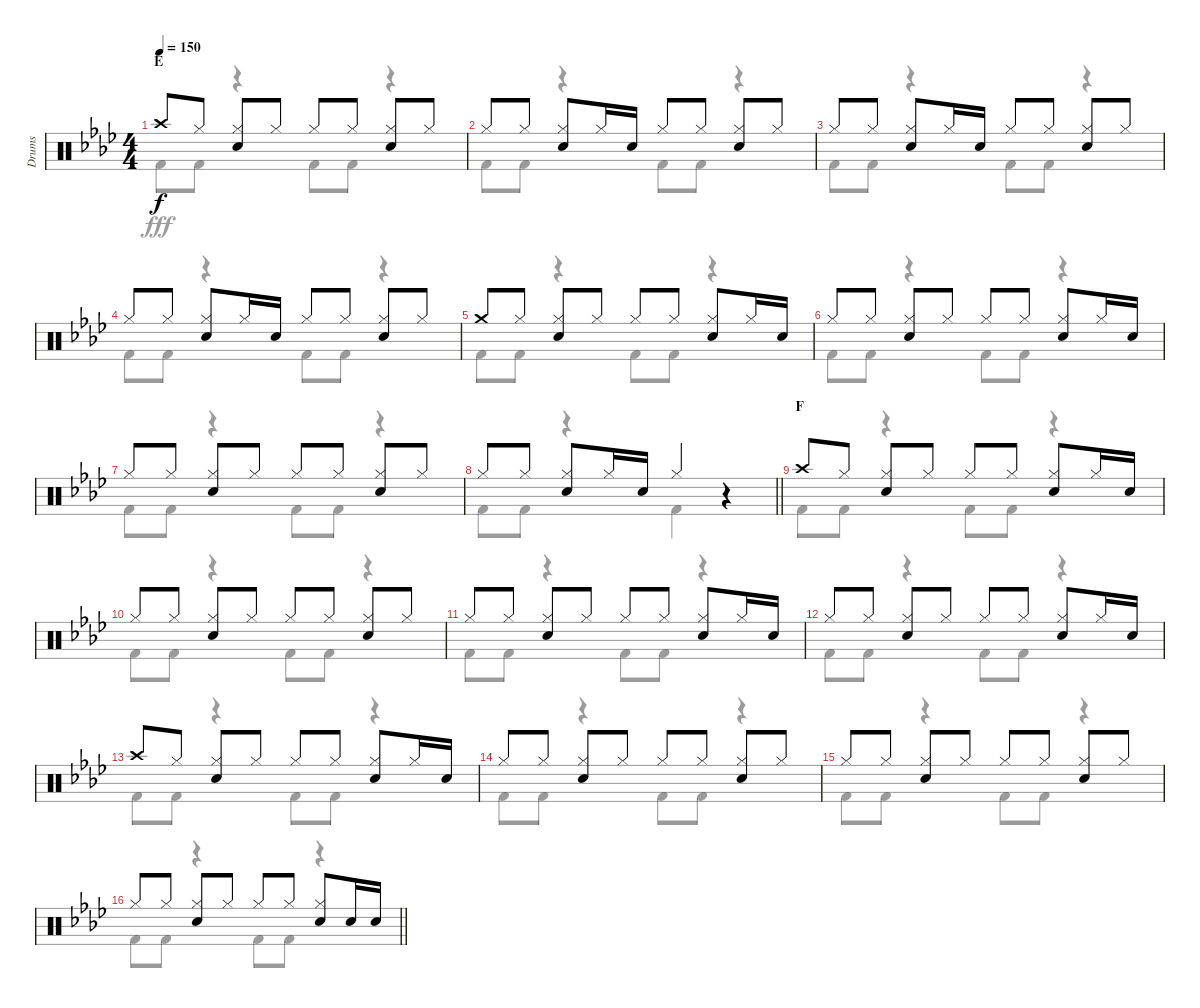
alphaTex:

\track ("Drums" "Drums") {instrument percussion}
\staff {score}
\articulation defaults
\voice
\ts (4 4)
\section ("" "E")
\tempo 150
\clef neutral
\ks ab "Crash high (hit)".8{dy f} "Hi-Hat (closed)".8
("Hi-Hat (closed)" "Snare (hit) 2").8 "Hi-Hat (closed)".8 "Hi-Hat (closed)".8 "Hi-Hat (closed)".8 ("Hi-Hat (closed)" "Snare (hit) 2").8 "Hi-Hat (closed)".8 |
"Hi-Hat (closed)".8 "Hi-Hat (closed)".8 ("Hi-Hat (closed)" "Snare (hit) 2").8 "Hi-Hat (closed)".16 "Snare (hit) 2".16 "Hi-Hat (closed)".8 "Hi-Hat (closed)".8 ("Hi-Hat (closed)" "Snare (hit) 2").8 "Hi-Hat (closed)".8 |
"Hi-Hat (closed)".8 "Hi-Hat (closed)".8 ("Hi-Hat (closed)" "Snare (hit) 2").8 "Hi-Hat (closed)".16 "Snare (hit) 2".16 "Hi-Hat (closed)".8 "Hi-Hat (closed)".8 ("Hi-Hat (closed)" "Snare (hit) 2").8 "Hi-Hat (closed)".8 |
"Hi-Hat (closed)".8 "Hi-Hat (closed)".8 ("Hi-Hat (closed)" "Snare (hit) 2").8 "Hi-Hat (closed)".16 "Snare (hit) 2".16 "Hi-Hat (closed)".8 "Hi-Hat (closed)".8 ("Hi-Hat (closed)" "Snare (hit) 2").8 "Hi-Hat (closed)".8 |
"Crash medium (hit)".8 "Hi-Hat (closed)".8 ("Hi-Hat (closed)" "Snare (hit) 2").8 "Hi-Hat (closed)".8 "Hi-Hat (closed)".8 "Hi-Hat (closed)".8 ("Hi-Hat (closed)" "Snare (hit) 2").8 "Hi-Hat (closed)".16 "Snare (hit) 2".16 |
"Hi-Hat (closed)".8 "Hi-Hat (closed)".8 ("Hi-Hat (closed)" "Snare (hit) 2").8 "Hi-Hat (closed)".8 "Hi-Hat (closed)".8 "Hi-Hat (closed)".8 ("Hi-Hat (closed)" "Snare (hit) 2").8 "Hi-Hat (closed)".16 "Snare (hit) 2".16 |
"Hi-Hat (closed)".8 "Hi-Hat (closed)".8 ("Hi-Hat (closed)" "Snare (hit) 2").8 "Hi-Hat (closed)".8 "Hi-Hat (closed)".8 "Hi-Hat (closed)".8 ("Hi-Hat (closed)" "Snare (hit) 2").8 "Hi-Hat (closed)".8 |
\barLineRight lightlight "Hi-Hat (closed)".8 "Hi-Hat (closed)".8
("Hi-Hat (closed)" "Snare (hit) 2").8 "Hi-Hat (closed)".16 "Snare (hit) 2".16 "Hi-Hat (closed)".4 r.4 |
\section ("" "F")
"Crash high (hit)".8 "Hi-Hat (closed)".8 ("Hi-Hat (closed)" "Snare (hit) 2").8 "Hi-Hat (closed)".8 "Hi-Hat (closed)".8 "Hi-Hat (closed)".8 ("Hi-Hat (closed)" "Snare (hit) 2").8 "Hi-Hat (closed)".16 "Snare (hit) 2".16 |
"Hi-Hat (closed)".8 "Hi-Hat (closed)".8 ("Hi-Hat (closed)" "Snare (hit) 2").8 "Hi-Hat (closed)".8 "Hi-Hat (closed)".8 "Hi-Hat (closed)".8 ("Hi-Hat (closed)" "Snare (hit) 2").8 "Hi-Hat (closed)".8 |
"Hi-Hat (closed)".8 "Hi-Hat (closed)".8 ("Hi-Hat (closed)" "Snare (hit) 2").8 "Hi-Hat (closed)".8 "Hi-Hat (closed)".8 "Hi-Hat (closed)".8 ("Hi-Hat (closed)" "Snare (hit) 2").8 "Hi-Hat (closed)".16 "Snare (hit) 2".16 |
"Hi-Hat (closed)".8 "Hi-Hat (closed)".8 ("Hi-Hat (closed)" "Snare (hit) 2").8 "Hi-Hat (closed)".8 "Hi-Hat (closed)".8 "Hi-Hat (closed)".8 ("Hi-Hat (closed)" "Snare (hit) 2").8 "Hi-Hat (closed)".16 "Snare (hit) 2".16 |
"Crash high (hit)".8 "Hi-Hat (closed)".8 ("Hi-Hat (closed)" "Snare (hit) 2").8 "Hi-Hat (closed)".8 "Hi-Hat (closed)".8 "Hi-Hat (closed)".8 ("Hi-Hat (closed)" "Snare (hit) 2").8 "Hi-Hat (closed)".16 "Snare (hit) 2".16 |
"Hi-Hat (closed)".8 "Hi-Hat (closed)".8 ("Hi-Hat (closed)" "Snare (hit) 2").8 "Hi-Hat (closed)".8 "Hi-Hat (closed)".8 "Hi-Hat (closed)".8 ("Hi-Hat (closed)" "Snare (hit) 2").8 "Hi-Hat (closed)".8 |
"Hi-Hat (closed)".8 "Hi-Hat (closed)".8 ("Hi-Hat (closed)" "Snare (hit) 2").8 "Hi-Hat (closed)".8 "Hi-Hat (closed)".8 "Hi-Hat (closed)".8 ("Hi-Hat (closed)" "Snare (hit) 2").8 "Hi-Hat (closed)".8 |
\barLineRight lightlight "Hi-Hat (closed)".8 "Hi-Hat (closed)".8
("Hi-Hat (closed)" "Snare (hit) 2").8 "Hi-Hat (closed)".8 "Hi-Hat (closed)".8 "Hi-Hat (closed)".8 ("Hi-Hat (closed)" "Snare (hit) 2").8 "Snare (hit) 2".16 "Snare (hit) 2".16
\voice
\clef neutral
\ottava regular
\simile none
\ks ab "Kick (hit) 2".8{dy fff} "Kick (hit) 2".8
r.4 "Kick (hit) 2".8 "Kick (hit) 2".8 r.4 |
"Kick (hit) 2".8 "Kick (hit) 2".8 r.4 "Kick (hit) 2".8 "Kick (hit) 2".8 r.4 |
"Kick (hit) 2".8 "Kick (hit) 2".8 r.4 "Kick (hit) 2".8 "Kick (hit) 2".8 r.4 |
"Kick (hit) 2".8 "Kick (hit) 2".8 r.4 "Kick (hit) 2".8 "Kick (hit) 2".8 r.4 |
"Kick (hit) 2".8 "Kick (hit) 2".8 r.4 "Kick (hit) 2".8 "Kick (hit) 2".8 r.4 |
"Kick (hit) 2".8 "Kick (hit) 2".8 r.4 "Kick (hit) 2".8 "Kick (hit) 2".8 r.4 |
"Kick (hit) 2".8 "Kick (hit) 2".8 r.4 "Kick (hit) 2".8 "Kick (hit) 2".8 r.4 |
\barLineRight lightlight "Kick (hit) 2".8 "Kick (hit) 2".8
r.4 "Kick (hit) 2".4 r.4 |
"Kick (hit) 2".8 "Kick (hit) 2".8 r.4 "Kick (hit) 2".8 "Kick (hit) 2".8 r.4 |
"Kick (hit) 2".8 "Kick (hit) 2".8 r.4 "Kick (hit) 2".8 "Kick (hit) 2".8 r.4 |
"Kick (hit) 2".8 "Kick (hit) 2".8 r.4 "Kick (hit) 2".8 "Kick (hit) 2".8 r.4 |
"Kick (hit) 2".8 "Kick (hit) 2".8 r.4 "Kick (hit) 2".8 "Kick (hit) 2".8 r.4 |
"Kick (hit) 2".8 "Kick (hit) 2".8 r.4 "Kick (hit) 2".8 "Kick (hit) 2".8 r.4 |
"Kick (hit) 2".8 "Kick (hit) 2".8 r.4 "Kick (hit) 2".8 "Kick (hit) 2".8 r.4 |
"Kick (hit) 2".8 "Kick (hit) 2".8 r.4 "Kick (hit) 2".8 "Kick (hit) 2".8 r.4 |
\barLineRight lightlight "Kick (hit) 2".8 "Kick (hit) 2".8
r.4 "Kick (hit) 2".8 "Kick (hit) 2".8 r.4
